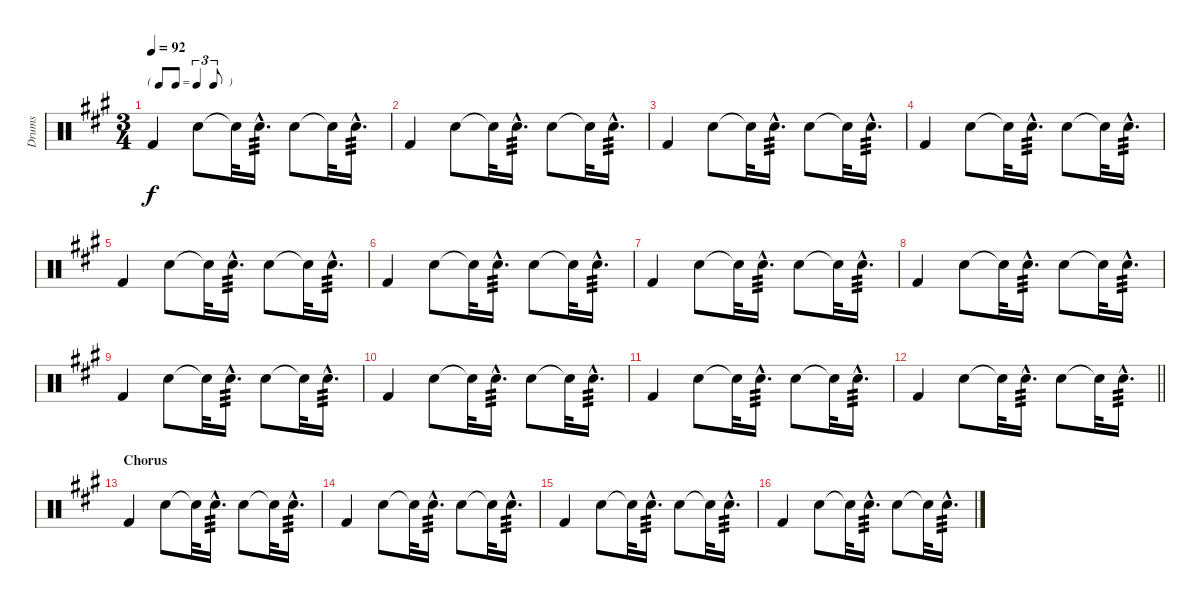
\track ("Drums" "Drums") {instrument percussion}
\staff {score}
\articulation defaults
\ts (3 4)
\tf triplet8th
\tempo 92
\clef neutral
\ks a "Kick (hit) 2".4{dy f} "Snare (hit) 2".8{balance 0} "Snare (hit) 2"{t}.32 "Snare (hit) 2"{hac}.16{d tp 3 balance 16} "Snare (hit) 2".8{balance 0} "Snare (hit) 2"{t}.32 "Snare (hit) 2"{hac}.16{d tp 3 balance 16}
|
"Kick (hit) 2".4 "Snare (hit) 2".8{balance 0} "Snare (hit) 2"{t}.32 "Snare (hit) 2"{hac}.16{d tp 3 balance 16} "Snare (hit) 2".8{balance 0} "Snare (hit) 2"{t}.32 "Snare (hit) 2"{hac}.16{d tp 3 balance 16} |
"Kick (hit) 2".4 "Snare (hit) 2".8{balance 0} "Snare (hit) 2"{t}.32 "Snare (hit) 2"{hac}.16{d tp 3 balance 16} "Snare (hit) 2".8{balance 0} "Snare (hit) 2"{t}.32 "Snare (hit) 2"{hac}.16{d tp 3 balance 16} |
"Kick (hit) 2".4 "Snare (hit) 2".8{balance 0} "Snare (hit) 2"{t}.32 "Snare (hit) 2"{hac}.16{d tp 3 balance 16} "Snare (hit) 2".8{balance 0} "Snare (hit) 2"{t}.32 "Snare (hit) 2"{hac}.16{d tp 3 balance 16} |
"Kick (hit) 2".4 "Snare (hit) 2".8{balance 0} "Snare (hit) 2"{t}.32 "Snare (hit) 2"{hac}.16{d tp 3 balance 16} "Snare (hit) 2".8{balance 0} "Snare (hit) 2"{t}.32 "Snare (hit) 2"{hac}.16{d tp 3 balance 16} |
"Kick (hit) 2".4 "Snare (hit) 2".8{balance 0} "Snare (hit) 2"{t}.32 "Snare (hit) 2"{hac}.16{d tp 3 balance 16} "Snare (hit) 2".8{balance 0} "Snare (hit) 2"{t}.32 "Snare (hit) 2"{hac}.16{d tp 3 balance 16} |
"Kick (hit) 2".4 "Snare (hit) 2".8{balance 0} "Snare (hit) 2"{t}.32 "Snare (hit) 2"{hac}.16{d tp 3 balance 16} "Snare (hit) 2".8{balance 0} "Snare (hit) 2"{t}.32 "Snare (hit) 2"{hac}.16{d tp 3 balance 16} |
"Kick (hit) 2".4 "Snare (hit) 2".8{balance 0} "Snare (hit) 2"{t}.32 "Snare (hit) 2"{hac}.16{d tp 3 balance 16} "Snare (hit) 2".8{balance 0} "Snare (hit) 2"{t}.32 "Snare (hit) 2"{hac}.16{d tp 3 balance 16} |
"Kick (hit) 2".4 "Snare (hit) 2".8{balance 0} "Snare (hit) 2"{t}.32 "Snare (hit) 2"{hac}.16{d tp 3 balance 16} "Snare (hit) 2".8{balance 0} "Snare (hit) 2"{t}.32 "Snare (hit) 2"{hac}.16{d tp 3 balance 16} |
"Kick (hit) 2".4 "Snare (hit) 2".8{balance 0} "Snare (hit) 2"{t}.32 "Snare (hit) 2"{hac}.16{d tp 3 balance 16} "Snare (hit) 2".8{balance 0} "Snare (hit) 2"{t}.32 "Snare (hit) 2"{hac}.16{d tp 3 balance 16} |
"Kick (hit) 2".4 "Snare (hit) 2".8{balance 0} "Snare (hit) 2"{t}.32 "Snare (hit) 2"{hac}.16{d tp 3 balance 16} "Snare (hit) 2".8{balance 0} "Snare (hit) 2"{t}.32 "Snare (hit) 2"{hac}.16{d tp 3 balance 16} |
\barLineRight lightlight "Kick (hit) 2".4 "Snare (hit) 2".8{balance 0} "Snare (hit) 2"{t}.32 "Snare (hit) 2"{hac}.16{d tp 3 balance 16} "Snare (hit) 2".8{balance 0} "Snare (hit) 2"{t}.32 "Snare (hit) 2"{hac}.16{d tp 3 balance 16}
|
\section ("" "Chorus")
"Kick (hit) 2".4 "Snare (hit) 2".8{balance 0} "Snare (hit) 2"{t}.32 "Snare (hit) 2"{hac}.16{d tp 3 balance 16} "Snare (hit) 2".8{balance 0} "Snare (hit) 2"{t}.32 "Snare (hit) 2"{hac}.16{d tp 3 balance 16} |
"Kick (hit) 2".4 "Snare (hit) 2".8{balance 0} "Snare (hit) 2"{t}.32 "Snare (hit) 2"{hac}.16{d tp 3 balance 16} "Snare (hit) 2".8{balance 0} "Snare (hit) 2"{t}.32 "Snare (hit) 2"{hac}.16{d tp 3 balance 16} |
"Kick (hit) 2".4 "Snare (hit) 2".8{balance 0} "Snare (hit) 2"{t}.32 "Snare (hit) 2"{hac}.16{d tp 3 balance 16} "Snare (hit) 2".8{balance 0} "Snare (hit) 2"{t}.32 "Snare (hit) 2"{hac}.16{d tp 3 balance 16} |
"Kick (hit) 2".4 "Snare (hit) 2".8{balance 0} "Snare (hit) 2"{t}.32 "Snare (hit) 2"{hac}.16{d tp 3 balance 16} "Snare (hit) 2".8{balance 0} "Snare (hit) 2"{t}.32 "Snare (hit) 2"{hac}.16{d tp 3 balance 16}
